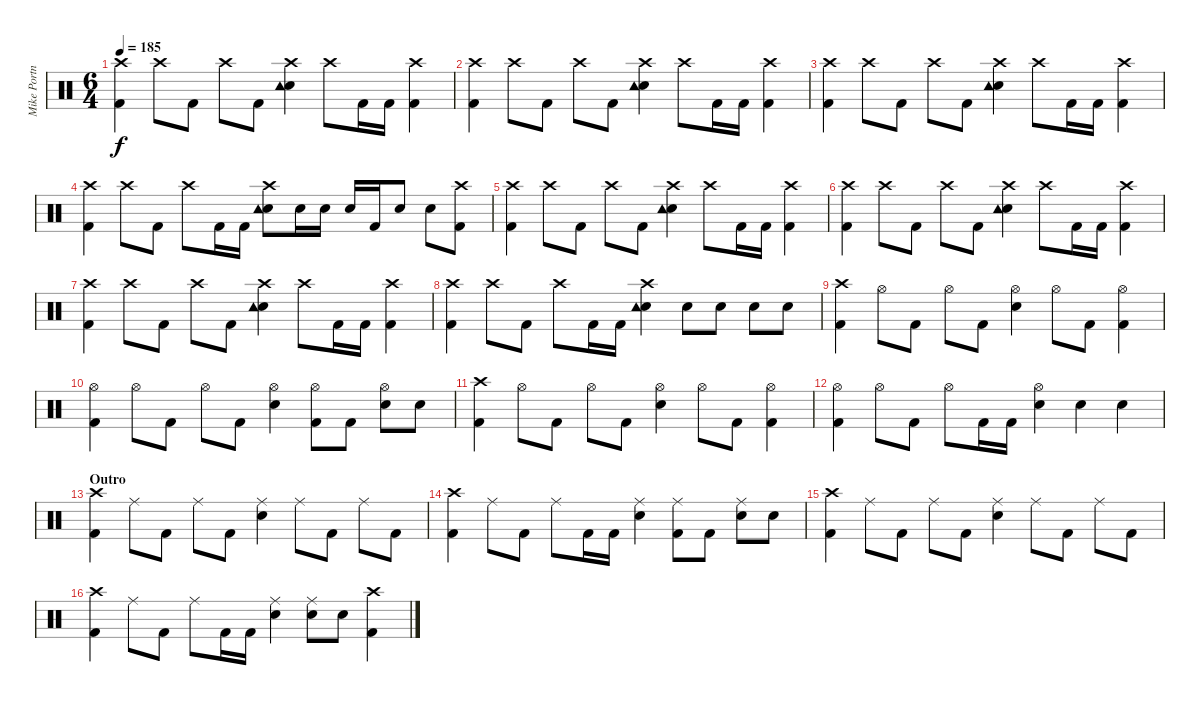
\track ("Mike Portnoy" "Mike Portn") {instrument percussion}
\staff {score}
\articulation defaults
\ts (6 4)
\tempo 185
\clef neutral
\ks c
("Crash high (hit)" "Kick (hit) 2").4{dy f} "Crash high (hit)".8 "Kick (hit) 2".8 "Crash high (hit)".8 "Kick (hit) 2".8 ("Snare (hit) 2" "Crash high (hit)" "Tambourine (hit)").4 "Crash high (hit)".8 "Kick (hit) 2".16 "Kick (hit) 2".16 ("Crash high (hit)" "Kick (hit) 2").4 |
("Crash high (hit)" "Kick (hit) 2").4 "Crash high (hit)".8 "Kick (hit) 2".8 "Crash high (hit)".8 "Kick (hit) 2".8 ("Snare (hit) 2" "Crash high (hit)" "Tambourine (hit)").4 "Crash high (hit)".8 "Kick (hit) 2".16 "Kick (hit) 2".16 ("Crash high (hit)" "Kick (hit) 2").4 |
("Crash high (hit)" "Kick (hit) 2").4 "Crash high (hit)".8 "Kick (hit) 2".8 "Crash high (hit)".8 "Kick (hit) 2".8 ("Snare (hit) 2" "Crash high (hit)" "Tambourine (hit)").4 "Crash high (hit)".8 "Kick (hit) 2".16 "Kick (hit) 2".16 ("Crash high (hit)" "Kick (hit) 2").4 |
("Crash high (hit)" "Kick (hit) 2").4 "Crash high (hit)".8 "Kick (hit) 2".8 "Crash high (hit)".8 "Kick (hit) 2".16 "Kick (hit) 2".16 ("Snare (hit) 2" "Crash high (hit)" "Tambourine (hit)").8 "Snare (hit) 2".16 "Snare (hit) 2".16 "Snare (hit) 2".16 "Kick (hit) 2".16 "Snare (hit) 2".8 "Snare (hit) 2".8 ("Crash high (hit)" "Kick (hit) 2").8 |
("Crash high (hit)" "Kick (hit) 2").4 "Crash high (hit)".8 "Kick (hit) 2".8 "Crash high (hit)".8 "Kick (hit) 2".8 ("Snare (hit) 2" "Crash high (hit)" "Tambourine (hit)").4 "Crash high (hit)".8 "Kick (hit) 2".16 "Kick (hit) 2".16 ("Crash high (hit)" "Kick (hit) 2").4 |
("Crash high (hit)" "Kick (hit) 2").4 "Crash high (hit)".8 "Kick (hit) 2".8 "Crash high (hit)".8 "Kick (hit) 2".8 ("Snare (hit) 2" "Crash high (hit)" "Tambourine (hit)").4 "Crash high (hit)".8 "Kick (hit) 2".16 "Kick (hit) 2".16 ("Crash high (hit)" "Kick (hit) 2").4 |
("Crash high (hit)" "Kick (hit) 2").4 "Crash high (hit)".8 "Kick (hit) 2".8 "Crash high (hit)".8 "Kick (hit) 2".8 ("Snare (hit) 2" "Crash high (hit)" "Tambourine (hit)").4 "Crash high (hit)".8 "Kick (hit) 2".16 "Kick (hit) 2".16 ("Crash high (hit)" "Kick (hit) 2").4 |
("Crash high (hit)" "Kick (hit) 2").4 "Crash high (hit)".8 "Kick (hit) 2".8 "Crash high (hit)".8 "Kick (hit) 2".16 "Kick (hit) 2".16 ("Snare (hit) 2" "Crash high (hit)" "Tambourine (hit)").4 "Snare (hit) 2".8 "Snare (hit) 2".8 "Snare (hit) 2".8 "Snare (hit) 2".8 |
("Crash high (hit)" "Kick (hit) 2").4 "Hi-Hat (open)".8 "Kick (hit) 2".8 "Hi-Hat (open)".8 "Kick (hit) 2".8 ("Snare (hit) 2" "Hi-Hat (open)").4 "Hi-Hat (open)".8 "Kick (hit) 2".8 ("Hi-Hat (open)" "Kick (hit) 2").4 |
("Hi-Hat (open)" "Kick (hit) 2").4 "Hi-Hat (open)".8 "Kick (hit) 2".8 "Hi-Hat (open)".8 "Kick (hit) 2".8 ("Snare (hit) 2" "Hi-Hat (open)").4 ("Hi-Hat (open)" "Kick (hit) 2").8 "Kick (hit) 2".8 ("Snare (hit) 2" "Hi-Hat (open)").8 "Snare (hit) 2".8 |
("Crash high (hit)" "Kick (hit) 2").4 "Hi-Hat (open)".8 "Kick (hit) 2".8 "Hi-Hat (open)".8 "Kick (hit) 2".8 ("Snare (hit) 2" "Hi-Hat (open)").4 "Hi-Hat (open)".8 "Kick (hit) 2".8 ("Hi-Hat (open)" "Kick (hit) 2").4 |
("Hi-Hat (open)" "Kick (hit) 2").4 "Hi-Hat (open)".8 "Kick (hit) 2".8 "Hi-Hat (open)".8 "Kick (hit) 2".16 "Kick (hit) 2".16 ("Snare (hit) 2" "Hi-Hat (open)").4 "Snare (hit) 2".4 "Snare (hit) 2".4 |
\section ("" "Outro")
("Crash high (hit)" "Kick (hit) 2").4 "Ride (middle)".8 "Kick (hit) 2".8 "Ride (middle)".8 "Kick (hit) 2".8 ("Snare (hit) 2" "Ride (middle)").4 "Ride (middle)".8 "Kick (hit) 2".8 "Ride (middle)".8 "Kick (hit) 2".8 |
("Crash high (hit)" "Kick (hit) 2").4 "Ride (middle)".8 "Kick (hit) 2".8 "Ride (middle)".8 "Kick (hit) 2".16 "Kick (hit) 2".16 ("Snare (hit) 2" "Ride (middle)").4 ("Ride (middle)" "Kick (hit) 2").8 "Kick (hit) 2".8 ("Snare (hit) 2" "Ride (middle)").8 "Snare (hit) 2".8 |
("Crash high (hit)" "Kick (hit) 2").4 "Ride (middle)".8 "Kick (hit) 2".8 "Ride (middle)".8 "Kick (hit) 2".8 ("Snare (hit) 2" "Ride (middle)").4 "Ride (middle)".8 "Kick (hit) 2".8 "Ride (middle)".8 "Kick (hit) 2".8 |
("Crash high (hit)" "Kick (hit) 2").4 "Ride (middle)".8 "Kick (hit) 2".8 "Ride (middle)".8 "Kick (hit) 2".16 "Kick (hit) 2".16 ("Snare (hit) 2" "Ride (middle)").4 ("Snare (hit) 2" "Ride (middle)").8 "Snare (hit) 2".8 ("Crash high (hit)" "Kick (hit) 2").4
